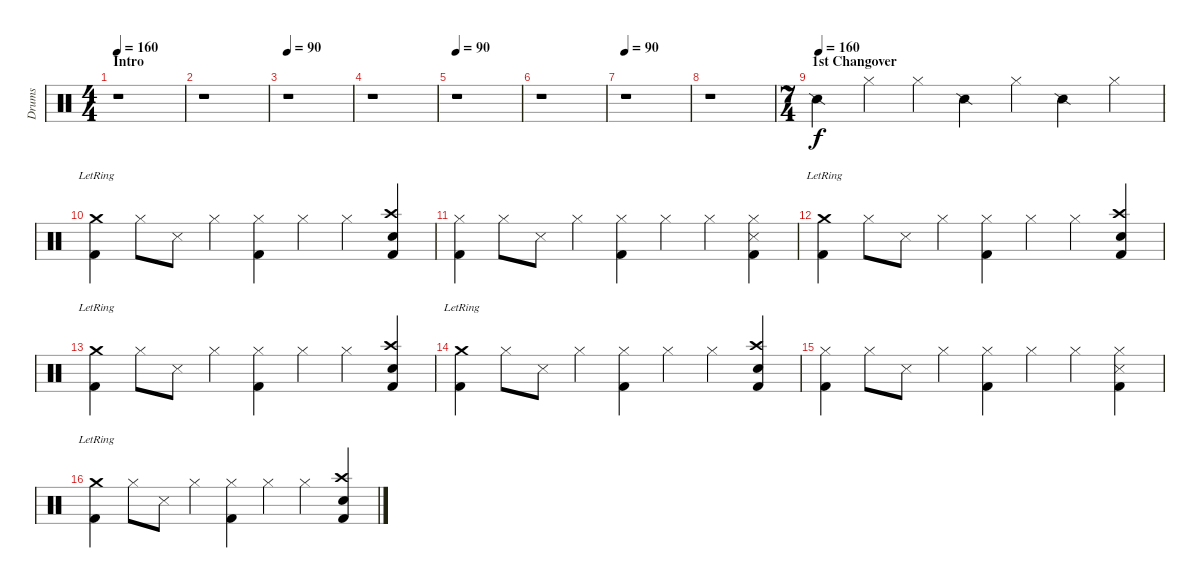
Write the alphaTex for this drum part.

\track ("Drums" "Drums") {instrument percussion}
\staff {score}
\articulation defaults
\ts (4 4)
\section ("" "Intro")
\tempo 160
\tempo 90
\tempo 160
\clef neutral
\ks c
r.1{dy f} |
r.1 |
\tempo 90
r.1 |
r.1 |
\tempo 90
r.1 |
r.1 |
\tempo 90
r.1 |
r.1 |
\ts (7 4)
\section ("" "1st Changover ")
\tempo (160)
"Snare (side stick) 2".4 "Hi-Hat (closed)".4 "Hi-Hat (closed)".4 "Snare (side stick) 2".4 "Hi-Hat (closed)".4 "Snare (side stick) 2".4 "Hi-Hat (closed)".4 |
("Crash medium (hit)"{lr} "Kick (hit) 2").4 "Hi-Hat (closed)".8 "Snare (side stick) 3".8 "Hi-Hat (closed)".4 ("Hi-Hat (closed)" "Kick (hit) 2").4 "Hi-Hat (closed)".4 "Hi-Hat (closed)".4 ("Crash high (hit)" "Snare (hit) 2" "Kick (hit) 2").4 |
("Hi-Hat (closed)" "Kick (hit) 2").4 "Hi-Hat (closed)".8 "Snare (side stick) 3".8 "Hi-Hat (closed)".4 ("Hi-Hat (closed)" "Kick (hit) 2").4 "Hi-Hat (closed)".4 "Hi-Hat (closed)".4 ("Hi-Hat (closed)" "Snare (side stick) 3" "Kick (hit) 2").4 |
("Crash medium (hit)"{lr} "Kick (hit) 2").4 "Hi-Hat (closed)".8 "Snare (side stick) 3".8 "Hi-Hat (closed)".4 ("Hi-Hat (closed)" "Kick (hit) 2").4 "Hi-Hat (closed)".4 "Hi-Hat (closed)".4 ("Crash high (hit)" "Snare (hit) 2" "Kick (hit) 2").4 |
("Crash medium (hit)"{lr} "Kick (hit) 2").4 "Hi-Hat (closed)".8 "Snare (side stick) 3".8 "Hi-Hat (closed)".4 ("Hi-Hat (closed)" "Kick (hit) 2").4 "Hi-Hat (closed)".4 "Hi-Hat (closed)".4 ("Crash high (hit)" "Snare (hit) 2" "Kick (hit) 2").4 |
("Crash medium (hit)"{lr} "Kick (hit) 2").4 "Hi-Hat (closed)".8 "Snare (side stick) 3".8 "Hi-Hat (closed)".4 ("Hi-Hat (closed)" "Kick (hit) 2").4 "Hi-Hat (closed)".4 "Hi-Hat (closed)".4 ("Crash high (hit)" "Snare (hit) 2" "Kick (hit) 2").4 |
("Hi-Hat (closed)" "Kick (hit) 2").4 "Hi-Hat (closed)".8 "Snare (side stick) 3".8 "Hi-Hat (closed)".4 ("Hi-Hat (closed)" "Kick (hit) 2").4 "Hi-Hat (closed)".4 "Hi-Hat (closed)".4 ("Hi-Hat (closed)" "Snare (side stick) 3" "Kick (hit) 2").4 |
("Crash medium (hit)"{lr} "Kick (hit) 2").4 "Hi-Hat (closed)".8 "Snare (side stick) 3".8 "Hi-Hat (closed)".4 ("Hi-Hat (closed)" "Kick (hit) 2").4 "Hi-Hat (closed)".4 "Hi-Hat (closed)".4 ("Crash high (hit)" "Snare (hit) 2" "Kick (hit) 2").4
